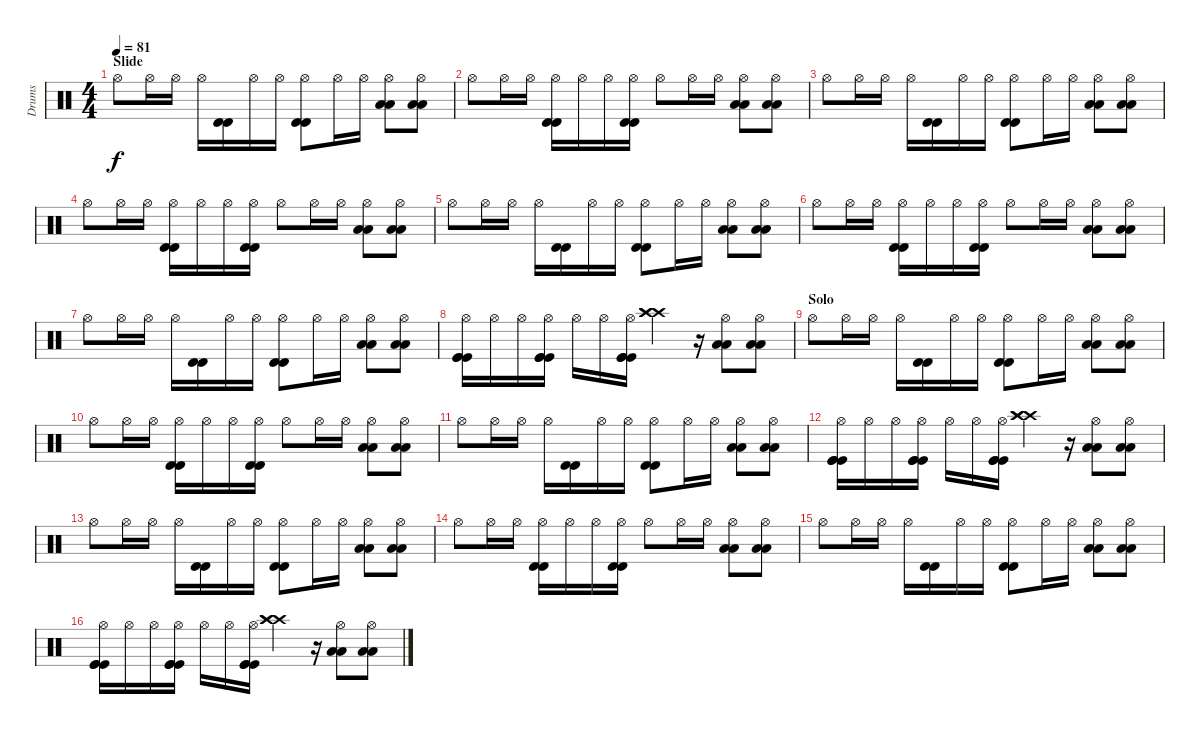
\track ("Drums" "Drums") {instrument percussion}
\staff {score}
\articulation defaults
\ts (4 4)
\section ("" "Slide")
\tempo 81
\clef neutral
\ks c "Hi-Hat (open)".8{dy f} "Hi-Hat (open)".16 "Hi-Hat (open)".16 "Hi-Hat (open)".16
("Timbale high (hit)" "Timbale high (hit)").16 "Hi-Hat (open)".16 "Hi-Hat (open)".16 ("Hi-Hat (open)" "Timbale high (hit)" "Timbale high (hit)").8 "Hi-Hat (open)".16 "Hi-Hat (open)".16 ("Hi-Hat (open)" "Low Tom (hit)" "Low Tom (hit)").8 ("Hi-Hat (open)" "Low Tom (hit)" "Low Tom (hit)").8 |
"Hi-Hat (open)".8 "Hi-Hat (open)".16 "Hi-Hat (open)".16 ("Hi-Hat (open)" "Timbale high (hit)" "Timbale high (hit)").16 "Hi-Hat (open)".16 "Hi-Hat (open)".16 ("Hi-Hat (open)" "Timbale high (hit)" "Timbale high (hit)").16 "Hi-Hat (open)".8 "Hi-Hat (open)".16 "Hi-Hat (open)".16 ("Hi-Hat (open)" "Low Tom (hit)" "Low Tom (hit)").8 ("Hi-Hat (open)" "Low Tom (hit)" "Low Tom (hit)").8 |
"Hi-Hat (open)".8 "Hi-Hat (open)".16 "Hi-Hat (open)".16 "Hi-Hat (open)".16 ("Timbale high (hit)" "Timbale high (hit)").16 "Hi-Hat (open)".16 "Hi-Hat (open)".16 ("Hi-Hat (open)" "Timbale high (hit)" "Timbale high (hit)").8 "Hi-Hat (open)".16 "Hi-Hat (open)".16 ("Hi-Hat (open)" "Low Tom (hit)" "Low Tom (hit)").8 ("Hi-Hat (open)" "Low Tom (hit)" "Low Tom (hit)").8 |
"Hi-Hat (open)".8 "Hi-Hat (open)".16 "Hi-Hat (open)".16 ("Hi-Hat (open)" "Timbale high (hit)" "Timbale high (hit)").16 "Hi-Hat (open)".16 "Hi-Hat (open)".16 ("Hi-Hat (open)" "Timbale high (hit)" "Timbale high (hit)").16 "Hi-Hat (open)".8 "Hi-Hat (open)".16 "Hi-Hat (open)".16 ("Hi-Hat (open)" "Low Tom (hit)" "Low Tom (hit)").8 ("Hi-Hat (open)" "Low Tom (hit)" "Low Tom (hit)").8 |
"Hi-Hat (open)".8 "Hi-Hat (open)".16 "Hi-Hat (open)".16 "Hi-Hat (open)".16 ("Timbale high (hit)" "Timbale high (hit)").16 "Hi-Hat (open)".16 "Hi-Hat (open)".16 ("Hi-Hat (open)" "Timbale high (hit)" "Timbale high (hit)").8 "Hi-Hat (open)".16 "Hi-Hat (open)".16 ("Hi-Hat (open)" "Low Tom (hit)" "Low Tom (hit)").8 ("Hi-Hat (open)" "Low Tom (hit)" "Low Tom (hit)").8 |
"Hi-Hat (open)".8 "Hi-Hat (open)".16 "Hi-Hat (open)".16 ("Hi-Hat (open)" "Timbale high (hit)" "Timbale high (hit)").16 "Hi-Hat (open)".16 "Hi-Hat (open)".16 ("Hi-Hat (open)" "Timbale high (hit)" "Timbale high (hit)").16 "Hi-Hat (open)".8 "Hi-Hat (open)".16 "Hi-Hat (open)".16 ("Hi-Hat (open)" "Low Tom (hit)" "Low Tom (hit)").8 ("Hi-Hat (open)" "Low Tom (hit)" "Low Tom (hit)").8 |
"Hi-Hat (open)".8 "Hi-Hat (open)".16 "Hi-Hat (open)".16 "Hi-Hat (open)".16 ("Timbale high (hit)" "Timbale high (hit)").16 "Hi-Hat (open)".16 "Hi-Hat (open)".16 ("Hi-Hat (open)" "Timbale high (hit)" "Timbale high (hit)").8 "Hi-Hat (open)".16 "Hi-Hat (open)".16 ("Hi-Hat (open)" "Low Tom (hit)" "Low Tom (hit)").8 ("Hi-Hat (open)" "Low Tom (hit)" "Low Tom (hit)").8 |
("Hi-Hat (open)" "Kick (hit)" "Kick (hit)" "Kick (hit)").16 "Hi-Hat (open)".16 "Hi-Hat (open)".16 ("Hi-Hat (open)" "Kick (hit)" "Kick (hit)" "Kick (hit)").16 "Hi-Hat (open)".16 "Hi-Hat (open)".16 ("Hi-Hat (open)" "Kick (hit)" "Kick (hit)" "Kick (hit)").16 ("Crash high (hit)" "Crash high (hit)" "Crash high (hit)").4 r.16 ("Hi-Hat (open)" "Low Tom (hit)" "Low Tom (hit)").8 ("Hi-Hat (open)" "Low Tom (hit)" "Low Tom (hit)").8 |
\section ("" "Solo")
"Hi-Hat (open)".8 "Hi-Hat (open)".16 "Hi-Hat (open)".16 "Hi-Hat (open)".16 ("Timbale high (hit)" "Timbale high (hit)").16 "Hi-Hat (open)".16 "Hi-Hat (open)".16 ("Hi-Hat (open)" "Timbale high (hit)" "Timbale high (hit)").8 "Hi-Hat (open)".16 "Hi-Hat (open)".16 ("Hi-Hat (open)" "Low Tom (hit)" "Low Tom (hit)").8 ("Hi-Hat (open)" "Low Tom (hit)" "Low Tom (hit)").8 |
"Hi-Hat (open)".8 "Hi-Hat (open)".16 "Hi-Hat (open)".16 ("Hi-Hat (open)" "Timbale high (hit)" "Timbale high (hit)").16 "Hi-Hat (open)".16 "Hi-Hat (open)".16 ("Hi-Hat (open)" "Timbale high (hit)" "Timbale high (hit)").16 "Hi-Hat (open)".8 "Hi-Hat (open)".16 "Hi-Hat (open)".16 ("Hi-Hat (open)" "Low Tom (hit)" "Low Tom (hit)").8 ("Hi-Hat (open)" "Low Tom (hit)" "Low Tom (hit)").8 |
"Hi-Hat (open)".8 "Hi-Hat (open)".16 "Hi-Hat (open)".16 "Hi-Hat (open)".16 ("Timbale high (hit)" "Timbale high (hit)").16 "Hi-Hat (open)".16 "Hi-Hat (open)".16 ("Hi-Hat (open)" "Timbale high (hit)" "Timbale high (hit)").8 "Hi-Hat (open)".16 "Hi-Hat (open)".16 ("Hi-Hat (open)" "Low Tom (hit)" "Low Tom (hit)").8 ("Hi-Hat (open)" "Low Tom (hit)" "Low Tom (hit)").8 |
("Hi-Hat (open)" "Kick (hit)" "Kick (hit)" "Kick (hit)").16 "Hi-Hat (open)".16 "Hi-Hat (open)".16 ("Hi-Hat (open)" "Kick (hit)" "Kick (hit)" "Kick (hit)").16 "Hi-Hat (open)".16 "Hi-Hat (open)".16 ("Hi-Hat (open)" "Kick (hit)" "Kick (hit)" "Kick (hit)").16 ("Crash high (hit)" "Crash high (hit)" "Crash high (hit)").4 r.16 ("Hi-Hat (open)" "Low Tom (hit)" "Low Tom (hit)").8 ("Hi-Hat (open)" "Low Tom (hit)" "Low Tom (hit)").8 |
"Hi-Hat (open)".8 "Hi-Hat (open)".16 "Hi-Hat (open)".16 "Hi-Hat (open)".16 ("Timbale high (hit)" "Timbale high (hit)").16 "Hi-Hat (open)".16 "Hi-Hat (open)".16 ("Hi-Hat (open)" "Timbale high (hit)" "Timbale high (hit)").8 "Hi-Hat (open)".16 "Hi-Hat (open)".16 ("Hi-Hat (open)" "Low Tom (hit)" "Low Tom (hit)").8 ("Hi-Hat (open)" "Low Tom (hit)" "Low Tom (hit)").8 |
"Hi-Hat (open)".8 "Hi-Hat (open)".16 "Hi-Hat (open)".16 ("Hi-Hat (open)" "Timbale high (hit)" "Timbale high (hit)").16 "Hi-Hat (open)".16 "Hi-Hat (open)".16 ("Hi-Hat (open)" "Timbale high (hit)" "Timbale high (hit)").16 "Hi-Hat (open)".8 "Hi-Hat (open)".16 "Hi-Hat (open)".16 ("Hi-Hat (open)" "Low Tom (hit)" "Low Tom (hit)").8 ("Hi-Hat (open)" "Low Tom (hit)" "Low Tom (hit)").8 |
"Hi-Hat (open)".8 "Hi-Hat (open)".16 "Hi-Hat (open)".16 "Hi-Hat (open)".16 ("Timbale high (hit)" "Timbale high (hit)").16 "Hi-Hat (open)".16 "Hi-Hat (open)".16 ("Hi-Hat (open)" "Timbale high (hit)" "Timbale high (hit)").8 "Hi-Hat (open)".16 "Hi-Hat (open)".16 ("Hi-Hat (open)" "Low Tom (hit)" "Low Tom (hit)").8 ("Hi-Hat (open)" "Low Tom (hit)" "Low Tom (hit)").8 |
("Hi-Hat (open)" "Kick (hit)" "Kick (hit)" "Kick (hit)").16 "Hi-Hat (open)".16 "Hi-Hat (open)".16 ("Hi-Hat (open)" "Kick (hit)" "Kick (hit)" "Kick (hit)").16 "Hi-Hat (open)".16 "Hi-Hat (open)".16 ("Hi-Hat (open)" "Kick (hit)" "Kick (hit)" "Kick (hit)").16 ("Crash high (hit)" "Crash high (hit)" "Crash high (hit)").4 r.16 ("Hi-Hat (open)" "Low Tom (hit)" "Low Tom (hit)").8 ("Hi-Hat (open)" "Low Tom (hit)" "Low Tom (hit)").8
